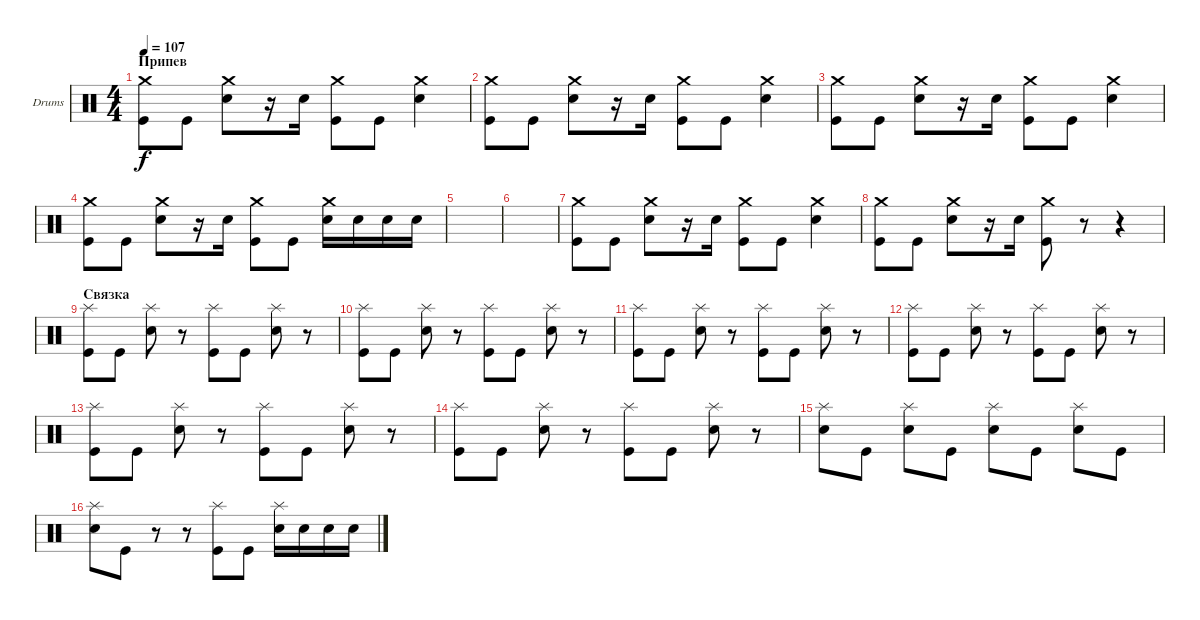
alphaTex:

\defaultSystemsLayout 4
\bracketExtendMode groupsimilarinstruments
\firstSystemTrackNameOrientation horizontal
\otherSystemsTrackNameOrientation horizontal
\track ("Drumkit" "Drums") {instrument percussion}
\staff {score}
\articulation defaults
\ts (4 4)
\section ("" "Припев")
\tempo 107
\clef neutral
\ks c
("Kick (hit)" "Crash medium (hit)").8{dy f} "Kick (hit)".8 ("Snare (hit) 2" "Crash medium (hit)").8 r.16 "Snare (hit) 2".16 ("Kick (hit)" "Crash medium (hit)").8 "Kick (hit)".8 ("Snare (hit) 2" "Crash medium (hit)").4 |
("Kick (hit)" "Crash medium (hit)").8 "Kick (hit)".8 ("Snare (hit) 2" "Crash medium (hit)").8 r.16 "Snare (hit) 2".16 ("Kick (hit)" "Crash medium (hit)").8 "Kick (hit)".8 ("Snare (hit) 2" "Crash medium (hit)").4 |
("Kick (hit)" "Crash medium (hit)").8 "Kick (hit)".8 ("Snare (hit) 2" "Crash medium (hit)").8 r.16 "Snare (hit) 2".16 ("Kick (hit)" "Crash medium (hit)").8 "Kick (hit)".8 ("Snare (hit) 2" "Crash medium (hit)").4 |
("Kick (hit)" "Crash medium (hit)").8 "Kick (hit)".8 ("Snare (hit) 2" "Crash medium (hit)").8 r.16 "Snare (hit) 2".16 ("Kick (hit)" "Crash medium (hit)").8 "Kick (hit)".8 ("Snare (hit) 2" "Crash medium (hit)").16 "Snare (hit) 2".16 "Snare (hit) 2".16 "Snare (hit) 2".16 |
|
|
("Kick (hit)" "Crash medium (hit)").8 "Kick (hit)".8 ("Snare (hit) 2" "Crash medium (hit)").8 r.16 "Snare (hit) 2".16 ("Kick (hit)" "Crash medium (hit)").8 "Kick (hit)".8 ("Snare (hit) 2" "Crash medium (hit)").4 |
("Kick (hit)" "Crash medium (hit)").8 "Kick (hit)".8 ("Snare (hit) 2" "Crash medium (hit)").8 r.16 "Snare (hit) 2".16 ("Kick (hit)" "Crash medium (hit)").8 r.8 r.4 |
\section ("" "Связка")
("Kick (hit)" "Splash (hit)").8 "Kick (hit)".8 ("Snare (hit) 2" "Splash (hit)").8 r.8 ("Kick (hit)" "Splash (hit)").8 "Kick (hit)".8 ("Snare (hit) 2" "Splash (hit)").8 r.8 |
("Kick (hit)" "Splash (hit)").8 "Kick (hit)".8 ("Snare (hit) 2" "Splash (hit)").8 r.8 ("Kick (hit)" "Splash (hit)").8 "Kick (hit)".8 ("Snare (hit) 2" "Splash (hit)").8 r.8 |
("Kick (hit)" "Splash (hit)").8 "Kick (hit)".8 ("Snare (hit) 2" "Splash (hit)").8 r.8 ("Kick (hit)" "Splash (hit)").8 "Kick (hit)".8 ("Snare (hit) 2" "Splash (hit)").8 r.8 |
("Kick (hit)" "Splash (hit)").8 "Kick (hit)".8 ("Snare (hit) 2" "Splash (hit)").8 r.8 ("Kick (hit)" "Splash (hit)").8 "Kick (hit)".8 ("Snare (hit) 2" "Splash (hit)").8 r.8 |
("Kick (hit)" "Splash (hit)").8 "Kick (hit)".8 ("Snare (hit) 2" "Splash (hit)").8 r.8 ("Kick (hit)" "Splash (hit)").8 "Kick (hit)".8 ("Snare (hit) 2" "Splash (hit)").8 r.8 |
("Kick (hit)" "Splash (hit)").8 "Kick (hit)".8 ("Snare (hit) 2" "Splash (hit)").8 r.8 ("Kick (hit)" "Splash (hit)").8 "Kick (hit)".8 ("Snare (hit) 2" "Splash (hit)").8 r.8 |
("Splash (hit)" "Snare (hit) 2").8 "Kick (hit)".8 ("Snare (hit) 2" "Splash (hit)").8 "Kick (hit)".8 ("Splash (hit)" "Snare (hit) 2").8 "Kick (hit)".8 ("Snare (hit) 2" "Splash (hit)").8 "Kick (hit)".8 |
("Splash (hit)" "Snare (hit) 2").8 "Kick (hit)".8 r.8 r.8 ("Kick (hit)" "Splash (hit)").8 "Kick (hit)".8 ("Snare (hit) 2" "Splash (hit)").16 "Snare (hit) 2".16 "Snare (hit) 2".16 "Snare (hit) 2".16
